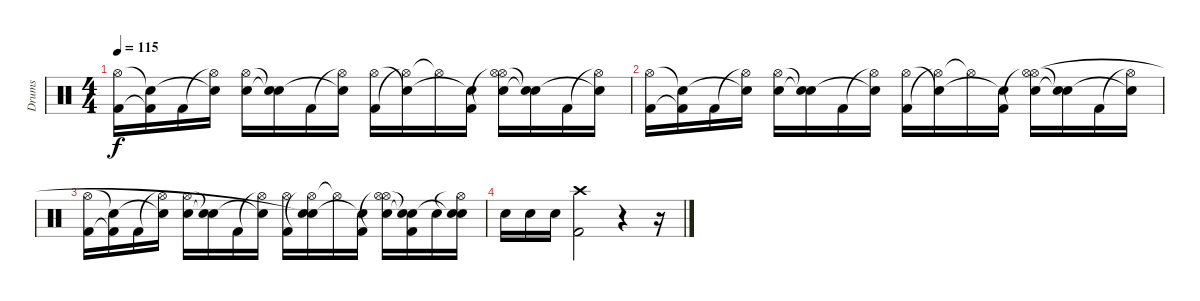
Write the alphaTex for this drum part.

\track ("Drums" "Drums") {instrument percussion}
\staff {score}
\articulation defaults
\ts (4 4)
\tempo 115
\clef neutral
\ks c
("Kick (hit) 2" "Hi-Hat (open)").16{dy f} ("Kick (hit) 2"{t} "Snare (hit)"{t}).16 "Kick (hit) 2".16 ("Hi-Hat (open)"{t} "Snare (hit)"{t}).16 ("Electric Snare (hit)" "Hi-Hat (open)").16 ("Snare (hit)"{t} "Snare (hit)"{t}).16 "Kick (hit) 2".16 ("Hi-Hat (open)"{t} "Snare (hit)"{t}).16 ("Kick (hit) 2" "Hi-Hat (open)").16 ("Hi-Hat (open)"{t} "Snare (hit)"{t}).16 "Hi-Hat (open)"{t}.16 ("Kick (hit) 2" "Snare (hit)"{t}).16 ("Hi-Hat (open)"{t} "Electric Snare (hit)" "Hi-Hat (open)").16 ("Electric Snare (hit)"{t} "Snare (hit)"{t}).16 "Kick (hit) 2".16 ("Hi-Hat (open)"{t} "Snare (hit)"{t}).16 |
("Kick (hit) 2" "Hi-Hat (open)").16 ("Kick (hit) 2"{t} "Snare (hit)"{t}).16 "Kick (hit) 2".16 ("Hi-Hat (open)"{t} "Snare (hit)"{t}).16 ("Electric Snare (hit)" "Hi-Hat (open)").16 ("Snare (hit)"{t} "Snare (hit)"{t}).16 "Kick (hit) 2".16 ("Hi-Hat (open)"{t} "Snare (hit)"{t}).16 ("Kick (hit) 2" "Hi-Hat (open)").16 ("Hi-Hat (open)"{t} "Snare (hit)"{t}).16 "Hi-Hat (open)"{t}.16 ("Kick (hit) 2" "Snare (hit)"{t}).16 ("Hi-Hat (open)"{t} "Electric Snare (hit)" "Hi-Hat (open)").16 ("Electric Snare (hit)"{t} "Snare (hit)"{t}).16 "Kick (hit) 2".16 ("Hi-Hat (open)"{t} "Snare (hit)"{t}).16 |
("Kick (hit) 2" "Hi-Hat (open)").16 ("Kick (hit) 2"{t} "Snare (hit)"{t}).16 "Kick (hit) 2".16 ("Hi-Hat (open)"{t} "Snare (hit)"{t}).16 ("Electric Snare (hit)" "Hi-Hat (open)").16 ("Snare (hit)"{t} "Snare (hit)"{t}).16 "Kick (hit) 2".16 ("Hi-Hat (open)"{t} "Snare (hit)"{t}).16 ("Kick (hit) 2" "Hi-Hat (open)").16 ("Hi-Hat (open)"{t} "Electric Snare (hit)" "Snare (hit)"{t}).16 "Hi-Hat (open)"{t}.16 ("Kick (hit) 2" "Snare (hit)"{t}).16 ("Hi-Hat (open)"{t} "Electric Snare (hit)" "Hi-Hat (open)").16 ("Kick (hit) 2" "Electric Snare (hit)"{t} "Snare (hit)"{t}).16 "Electric Snare (hit)".16 ("Hi-Hat (open)"{t} "Electric Snare (hit)" "Snare (hit)"{t}).16 |
"Electric Snare (hit)".16 "Electric Snare (hit)".16 "Electric Snare (hit)".16 ("Crash high (hit)" "Kick (hit) 2").2 r.4 r.16
